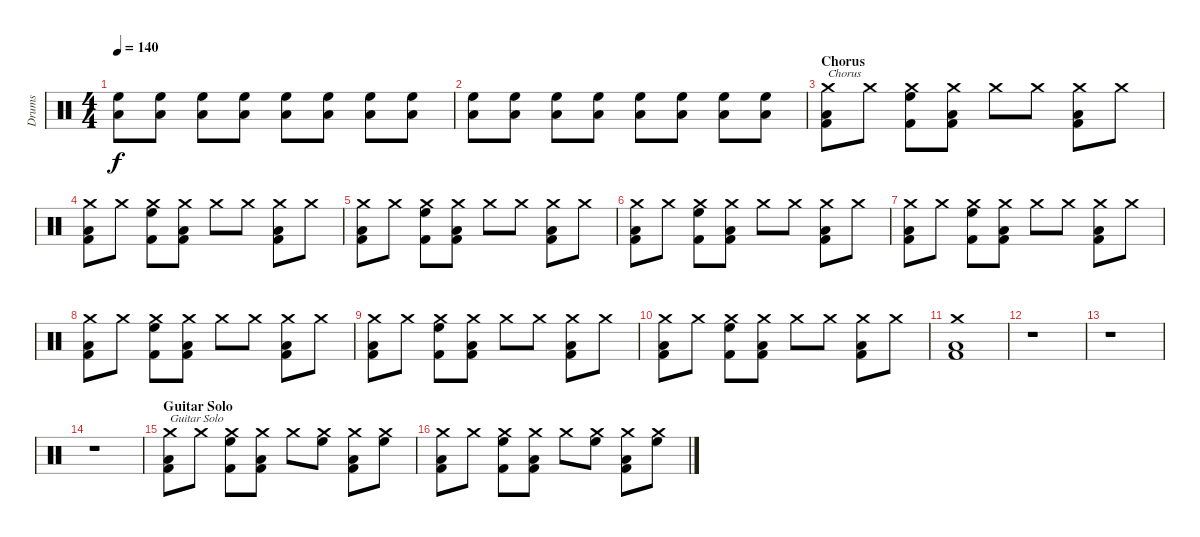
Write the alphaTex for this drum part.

\track ("Drums" "Drums") {instrument percussion}
\staff {score}
\articulation defaults
\ts (4 4)
\tempo 140
\clef neutral
\ks c
("Low Tom (hit)" "High Floor Tom (hit)").8{dy f} ("Low Tom (hit)" "High Floor Tom (hit)").8 ("Low Tom (hit)" "High Floor Tom (hit)").8 ("Low Tom (hit)" "High Floor Tom (hit)").8 ("Low Tom (hit)" "High Floor Tom (hit)").8 ("Low Tom (hit)" "High Floor Tom (hit)").8 ("Low Tom (hit)" "High Floor Tom (hit)").8 ("Low Tom (hit)" "High Floor Tom (hit)").8 |
("Low Tom (hit)" "High Floor Tom (hit)").8 ("Low Tom (hit)" "High Floor Tom (hit)").8 ("Low Tom (hit)" "High Floor Tom (hit)").8 ("Low Tom (hit)" "High Floor Tom (hit)").8 ("Low Tom (hit)" "High Floor Tom (hit)").8 ("Low Tom (hit)" "High Floor Tom (hit)").8 ("Low Tom (hit)" "High Floor Tom (hit)").8 ("Low Tom (hit)" "High Floor Tom (hit)").8 |
\section ("" "Chorus")
("Low Tom (hit)" "Crash medium (hit)" "Kick (hit) 2").8{txt "Chorus"} "Crash medium (hit)".8 ("High Floor Tom (hit)" "Crash medium (hit)" "Kick (hit) 2").8 ("Low Tom (hit)" "Crash medium (hit)" "Kick (hit) 2").8 "Crash medium (hit)".8 "Crash medium (hit)".8 ("Low Tom (hit)" "Crash medium (hit)" "Kick (hit) 2").8 "Crash medium (hit)".8 |
("Low Tom (hit)" "Crash medium (hit)" "Kick (hit) 2").8 "Crash medium (hit)".8 ("High Floor Tom (hit)" "Crash medium (hit)" "Kick (hit) 2").8 ("Low Tom (hit)" "Crash medium (hit)" "Kick (hit) 2").8 "Crash medium (hit)".8 "Crash medium (hit)".8 ("Low Tom (hit)" "Crash medium (hit)" "Kick (hit) 2").8 "Crash medium (hit)".8 |
("Low Tom (hit)" "Crash medium (hit)" "Kick (hit) 2").8 "Crash medium (hit)".8 ("High Floor Tom (hit)" "Crash medium (hit)" "Kick (hit) 2").8 ("Low Tom (hit)" "Crash medium (hit)" "Kick (hit) 2").8 "Crash medium (hit)".8 "Crash medium (hit)".8 ("Low Tom (hit)" "Crash medium (hit)" "Kick (hit) 2").8 "Crash medium (hit)".8 |
("Low Tom (hit)" "Crash medium (hit)" "Kick (hit) 2").8 "Crash medium (hit)".8 ("High Floor Tom (hit)" "Crash medium (hit)" "Kick (hit) 2").8 ("Low Tom (hit)" "Crash medium (hit)" "Kick (hit) 2").8 "Crash medium (hit)".8 "Crash medium (hit)".8 ("Low Tom (hit)" "Crash medium (hit)" "Kick (hit) 2").8 "Crash medium (hit)".8 |
("Low Tom (hit)" "Crash medium (hit)" "Kick (hit) 2").8 "Crash medium (hit)".8 ("High Floor Tom (hit)" "Crash medium (hit)" "Kick (hit) 2").8 ("Low Tom (hit)" "Crash medium (hit)" "Kick (hit) 2").8 "Crash medium (hit)".8 "Crash medium (hit)".8 ("Low Tom (hit)" "Crash medium (hit)" "Kick (hit) 2").8 "Crash medium (hit)".8 |
("Low Tom (hit)" "Crash medium (hit)" "Kick (hit) 2").8 "Crash medium (hit)".8 ("High Floor Tom (hit)" "Crash medium (hit)" "Kick (hit) 2").8 ("Low Tom (hit)" "Crash medium (hit)" "Kick (hit) 2").8 "Crash medium (hit)".8 "Crash medium (hit)".8 ("Low Tom (hit)" "Crash medium (hit)" "Kick (hit) 2").8 "Crash medium (hit)".8 |
("Low Tom (hit)" "Crash medium (hit)" "Kick (hit) 2").8 "Crash medium (hit)".8 ("High Floor Tom (hit)" "Crash medium (hit)" "Kick (hit) 2").8 ("Low Tom (hit)" "Crash medium (hit)" "Kick (hit) 2").8 "Crash medium (hit)".8 "Crash medium (hit)".8 ("Low Tom (hit)" "Crash medium (hit)" "Kick (hit) 2").8 "Crash medium (hit)".8 |
("Low Tom (hit)" "Crash medium (hit)" "Kick (hit) 2").8 "Crash medium (hit)".8 ("High Floor Tom (hit)" "Crash medium (hit)" "Kick (hit) 2").8 ("Low Tom (hit)" "Crash medium (hit)" "Kick (hit) 2").8 "Crash medium (hit)".8 "Crash medium (hit)".8 ("Low Tom (hit)" "Crash medium (hit)" "Kick (hit) 2").8 "Crash medium (hit)".8 |
("Low Tom (hit)" "Crash medium (hit)" "Kick (hit) 2").1 |
r.1 |
r.1 |
r.1 |
\section ("" "Guitar Solo")
("Low Tom (hit)" "Crash medium (hit)" "Kick (hit) 2").8{txt "Guitar Solo"} "Crash medium (hit)".8 ("High Floor Tom (hit)" "Crash medium (hit)" "Kick (hit) 2").8 ("Low Tom (hit)" "Crash medium (hit)" "Kick (hit) 2").8 "Crash medium (hit)".8 ("High Floor Tom (hit)" "Crash medium (hit)").8 ("Low Tom (hit)" "Crash medium (hit)" "Kick (hit) 2").8 ("High Floor Tom (hit)" "Crash medium (hit)").8 |
("Low Tom (hit)" "Crash medium (hit)" "Kick (hit) 2").8 "Crash medium (hit)".8 ("High Floor Tom (hit)" "Crash medium (hit)" "Kick (hit) 2").8 ("Low Tom (hit)" "Crash medium (hit)" "Kick (hit) 2").8 "Crash medium (hit)".8 ("High Floor Tom (hit)" "Crash medium (hit)").8 ("Low Tom (hit)" "Crash medium (hit)" "Kick (hit) 2").8 ("High Floor Tom (hit)" "Crash medium (hit)").8
